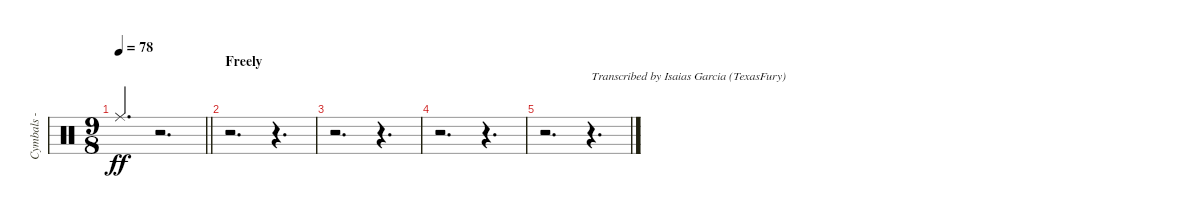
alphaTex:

\track ("Cymbals - ride" "Cymbals - ") {instrument percussion}
\staff {score}
\articulation defaults
\ts (9 8)
\tempo 78
\clef neutral
\barLineRight lightlight
\ks c "Ride (middle)".4{d dy ff beam Up}
r.2{d} |
\section ("" "Freely")
r.2{d} r.4{d} |
r.2{d} r.4{d} |
r.2{d} r.4{d} |
r.2{d} r.4{d txt "Transcribed by Isaias Garcia (TexasFury)"}
